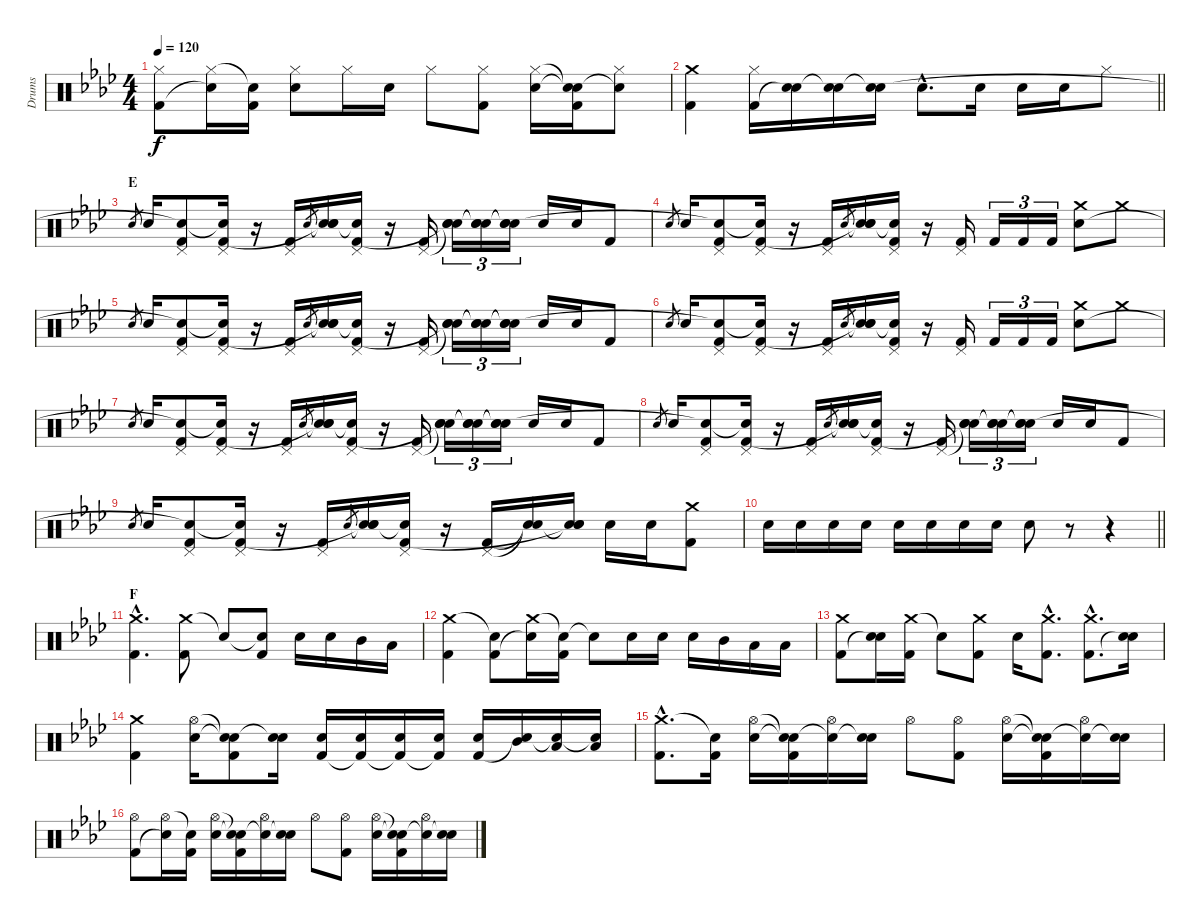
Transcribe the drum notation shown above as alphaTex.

\track ("Drums" "Drums") {instrument percussion}
\staff {score}
\articulation defaults
\ts (4 4)
\tempo 120
\clef neutral
\ks fminor
("Hi-Hat (closed)" "Kick (hit) 2").8{dy f} ("Hi-Hat (closed)" "Snare (hit)"{t}).16 ("Snare (hit)"{t} "Kick (hit) 2").16 ("Hi-Hat (closed)" "Electric Snare (hit)").8 "Hi-Hat (closed)".16 "Electric Snare (hit)".16 "Hi-Hat (closed)".8 ("Hi-Hat (closed)" "Kick (hit) 2").8 ("Hi-Hat (closed)" "Electric Snare (hit)").16 ("Snare (hit)"{t} "Snare (hit)"{t} "Kick (hit) 2").16 ("Hi-Hat (closed)" "Snare (hit)"{t}).8 |
\barLineRight lightlight
("Crash medium (hit)" "Kick (hit) 2").4 ("Hi-Hat (closed)" "Kick (hit) 2").16 ("Electric Snare (hit)" "Snare (hit)"{t}).16 ("Electric Snare (hit)" "Snare (hit)"{t}).16 ("Electric Snare (hit)" "Snare (hit)"{t}).16 "Electric Snare (hit)"{hac}.8{d} "Electric Snare (hit)".16 "Electric Snare (hit)".16 "Electric Snare (hit)".16 "Hi-Hat (closed)".8 |
\section ("" "E")
"Electric Snare (hit)".8{gr} "Electric Snare (hit)".16 ("Pedal Hi-Hat (hit)" "Snare (hit)"{t} "Kick (hit) 2").8 ("Pedal Hi-Hat (hit)" "Snare (hit)"{t} "Kick (hit) 2").16 r.16 ("Pedal Hi-Hat (hit)" "Kick (hit) 2").16 "Electric Snare (hit)".8{gr} ("Snare (hit)"{t} "Electric Snare (hit)" "Snare (hit)"{t}).16 ("Pedal Hi-Hat (hit)" "Snare (hit)"{t} "Kick (hit) 2").16 r.16 ("Pedal Hi-Hat (hit)" "Kick (hit) 2").16 ("Snare (hit)"{t} "Electric Snare (hit)" "Snare (hit)"{t}).16{tu (3 2)} ("Snare (hit)"{t} "Electric Snare (hit)" "Snare (hit)"{t}).16{tu (3 2)} ("Snare (hit)"{t} "Electric Snare (hit)" "Snare (hit)"{t}).16{tu (3 2)} "Electric Snare (hit)".16 "Electric Snare (hit)".16 "Kick (hit) 2".8 |
"Electric Snare (hit)".8{gr} "Electric Snare (hit)".16 ("Pedal Hi-Hat (hit)" "Snare (hit)"{t} "Kick (hit) 2").8 ("Pedal Hi-Hat (hit)" "Snare (hit)"{t} "Kick (hit) 2").16 r.16 ("Pedal Hi-Hat (hit)" "Kick (hit) 2").16 "Electric Snare (hit)".8{gr} ("Snare (hit)"{t} "Electric Snare (hit)" "Snare (hit)"{t}).16 ("Pedal Hi-Hat (hit)" "Snare (hit)"{t} "Kick (hit) 2").16 r.16 ("Pedal Hi-Hat (hit)" "Kick (hit) 2").16 "Kick (hit) 2".16{tu (3 2)} "Kick (hit) 2".16{tu (3 2)} "Kick (hit) 2".16{tu (3 2)} ("Crash medium (hit)" "Electric Snare (hit)").8 "Crash medium (hit)".8 |
"Electric Snare (hit)".8{gr} "Electric Snare (hit)".16 ("Pedal Hi-Hat (hit)" "Snare (hit)"{t} "Kick (hit) 2").8 ("Pedal Hi-Hat (hit)" "Snare (hit)"{t} "Kick (hit) 2").16 r.16 ("Pedal Hi-Hat (hit)" "Kick (hit) 2").16 "Electric Snare (hit)".8{gr} ("Snare (hit)"{t} "Electric Snare (hit)" "Snare (hit)"{t}).16 ("Pedal Hi-Hat (hit)" "Snare (hit)"{t} "Kick (hit) 2").16 r.16 ("Pedal Hi-Hat (hit)" "Kick (hit) 2").16 ("Snare (hit)"{t} "Electric Snare (hit)" "Snare (hit)"{t}).16{tu (3 2)} ("Snare (hit)"{t} "Electric Snare (hit)" "Snare (hit)"{t}).16{tu (3 2)} ("Snare (hit)"{t} "Electric Snare (hit)" "Snare (hit)"{t}).16{tu (3 2)} "Electric Snare (hit)".16 "Electric Snare (hit)".16 "Kick (hit) 2".8 |
"Electric Snare (hit)".8{gr} "Electric Snare (hit)".16 ("Pedal Hi-Hat (hit)" "Snare (hit)"{t} "Kick (hit) 2").8 ("Pedal Hi-Hat (hit)" "Snare (hit)"{t} "Kick (hit) 2").16 r.16 ("Pedal Hi-Hat (hit)" "Kick (hit) 2").16 "Electric Snare (hit)".8{gr} ("Snare (hit)"{t} "Electric Snare (hit)" "Snare (hit)"{t}).16 ("Pedal Hi-Hat (hit)" "Snare (hit)"{t} "Kick (hit) 2").16 r.16 ("Pedal Hi-Hat (hit)" "Kick (hit) 2").16 "Kick (hit) 2".16{tu (3 2)} "Kick (hit) 2".16{tu (3 2)} "Kick (hit) 2".16{tu (3 2)} ("Crash medium (hit)" "Electric Snare (hit)").8 "Crash medium (hit)".8 |
"Electric Snare (hit)".8{gr} "Electric Snare (hit)".16 ("Pedal Hi-Hat (hit)" "Snare (hit)"{t} "Kick (hit) 2").8 ("Pedal Hi-Hat (hit)" "Snare (hit)"{t} "Kick (hit) 2").16 r.16 ("Pedal Hi-Hat (hit)" "Kick (hit) 2").16 "Electric Snare (hit)".8{gr} ("Snare (hit)"{t} "Electric Snare (hit)" "Snare (hit)"{t}).16 ("Pedal Hi-Hat (hit)" "Snare (hit)"{t} "Kick (hit) 2").16 r.16 ("Pedal Hi-Hat (hit)" "Kick (hit) 2").16 ("Snare (hit)"{t} "Electric Snare (hit)" "Snare (hit)"{t}).16{tu (3 2)} ("Snare (hit)"{t} "Electric Snare (hit)" "Snare (hit)"{t}).16{tu (3 2)} ("Snare (hit)"{t} "Electric Snare (hit)" "Snare (hit)"{t}).16{tu (3 2)} "Electric Snare (hit)".16 "Electric Snare (hit)".16 "Kick (hit) 2".8 |
"Electric Snare (hit)".8{gr} "Electric Snare (hit)".16 ("Pedal Hi-Hat (hit)" "Snare (hit)"{t} "Kick (hit) 2").8 ("Pedal Hi-Hat (hit)" "Snare (hit)"{t} "Kick (hit) 2").16 r.16 ("Pedal Hi-Hat (hit)" "Kick (hit) 2").16 "Electric Snare (hit)".8{gr} ("Snare (hit)"{t} "Electric Snare (hit)" "Snare (hit)"{t}).16 ("Pedal Hi-Hat (hit)" "Snare (hit)"{t} "Kick (hit) 2").16 r.16 ("Pedal Hi-Hat (hit)" "Kick (hit) 2").16 ("Snare (hit)"{t} "Electric Snare (hit)" "Snare (hit)"{t}).16{tu (3 2)} ("Snare (hit)"{t} "Electric Snare (hit)" "Snare (hit)"{t}).16{tu (3 2)} ("Snare (hit)"{t} "Electric Snare (hit)" "Snare (hit)"{t}).16{tu (3 2)} "Electric Snare (hit)".16 "Electric Snare (hit)".16 "Kick (hit) 2".8 |
"Electric Snare (hit)".8{gr} "Electric Snare (hit)".16 ("Pedal Hi-Hat (hit)" "Snare (hit)"{t} "Kick (hit) 2").8 ("Pedal Hi-Hat (hit)" "Snare (hit)"{t} "Kick (hit) 2").16 r.16 ("Pedal Hi-Hat (hit)" "Kick (hit) 2").16 "Electric Snare (hit)".8{gr} ("Snare (hit)"{t} "Electric Snare (hit)" "Snare (hit)"{t}).16 ("Pedal Hi-Hat (hit)" "Snare (hit)"{t} "Kick (hit) 2").16 r.16 ("Pedal Hi-Hat (hit)" "Kick (hit) 2").16 ("Snare (hit)"{t} "Snare (hit)"{t}).16 ("Snare (hit)"{t} "Electric Snare (hit)" "Snare (hit)"{t}).16 "Electric Snare (hit)".16 "Electric Snare (hit)".16 ("Crash medium (hit)" "Kick (hit) 2").8 |
\barLineRight lightlight "Electric Snare (hit)".16 "Electric Snare (hit)".16 "Electric Snare (hit)".16 "Electric Snare (hit)".16 "Electric Snare (hit)".16 "Electric Snare (hit)".16 "Electric Snare (hit)".16 "Electric Snare (hit)".16 "Electric Snare (hit)".8
r.8 r.4 |
\section ("" "F")
("Crash medium (hit)"{hac} "Kick (hit) 2"{hac}).4{d} ("Crash medium (hit)" "Kick (hit) 2").8 "Snare (hit)"{t}.8 ("Snare (hit)"{t} "Kick (hit) 2").8 "Electric Snare (hit)".16 "Electric Snare (hit)".16 "Mid Tom (hit)".16 "Low Floor Tom (hit)".16 |
("Crash medium (hit)" "Kick (hit) 2").4 ("Snare (hit)"{t} "Kick (hit) 2").8 ("Crash medium (hit)" "Snare (hit)"{t}).16 ("Snare (hit)"{t} "Kick (hit) 2").16 "Snare (hit)"{t}.8 "Electric Snare (hit)".16 "Electric Snare (hit)".16 "Electric Snare (hit)".16 "Mid Tom (hit)".16 "Low Tom (hit)".16 "Low Floor Tom (hit)".16 |
("Crash medium (hit)" "Kick (hit) 2").8 ("Electric Snare (hit)" "Snare (hit)"{t}).16 ("Crash medium (hit)" "Kick (hit) 2").16 "Snare (hit)"{t}.8 ("Crash medium (hit)" "Kick (hit) 2").8 "Electric Snare (hit)".16 ("Crash medium (hit)"{hac} "Kick (hit) 2"{hac}).8{d} ("Crash medium (hit)"{hac} "Kick (hit) 2"{hac}).8{d} ("Electric Snare (hit)" "Snare (hit)"{t}).16 |
("Crash medium (hit)" "Kick (hit) 2").4 ("Hi-Hat (open)" "Electric Snare (hit)").16 ("Snare (hit)"{t} "Snare (hit)"{t} "Kick (hit) 2").8 ("Electric Snare (hit)" "Snare (hit)"{t}).16 ("Electric Snare (hit)" "Kick (hit) 2").16 ("Electric Snare (hit)" "Kick (hit) 2"{t}).16 ("Electric Snare (hit)" "Kick (hit) 2"{t}).16 ("Electric Snare (hit)" "Kick (hit) 2"{t}).16 ("Electric Snare (hit)" "Kick (hit) 2").16 ("Mid Tom (hit)" "Snare (hit)"{t}).16 ("Low Tom (hit)" "Snare (hit)"{t}).16 ("Low Floor Tom (hit)" "Snare (hit)"{t}).16 |
("Crash medium (hit)"{hac} "Kick (hit) 2"{hac}).8{d} ("Snare (hit)"{t} "Kick (hit) 2").16 ("Hi-Hat (open)" "Electric Snare (hit)").16 ("Snare (hit)"{t} "Snare (hit)"{t} "Kick (hit) 2").16 ("Hi-Hat (open)" "Snare (hit)"{t}).16 ("Electric Snare (hit)" "Snare (hit)"{t}).16 "Hi-Hat (open)".8 ("Hi-Hat (open)" "Kick (hit) 2").8 ("Hi-Hat (open)" "Electric Snare (hit)").16 ("Snare (hit)"{t} "Snare (hit)"{t} "Kick (hit) 2").16 ("Hi-Hat (open)" "Snare (hit)"{t}).16 ("Electric Snare (hit)" "Snare (hit)"{t}).16 |
("Hi-Hat (open)" "Kick (hit) 2").8 ("Hi-Hat (open)" "Snare (hit)"{t}).16 ("Snare (hit)"{t} "Kick (hit) 2").16 ("Hi-Hat (open)" "Electric Snare (hit)").16 ("Snare (hit)"{t} "Snare (hit)"{t} "Kick (hit) 2").16 ("Hi-Hat (open)" "Snare (hit)"{t}).16 ("Electric Snare (hit)" "Snare (hit)"{t}).16 "Hi-Hat (open)".8 ("Hi-Hat (open)" "Kick (hit) 2").8 ("Hi-Hat (open)" "Electric Snare (hit)").16 ("Snare (hit)"{t} "Snare (hit)"{t} "Kick (hit) 2").16 ("Hi-Hat (open)" "Snare (hit)"{t}).16 ("Electric Snare (hit)" "Snare (hit)"{t}).16
